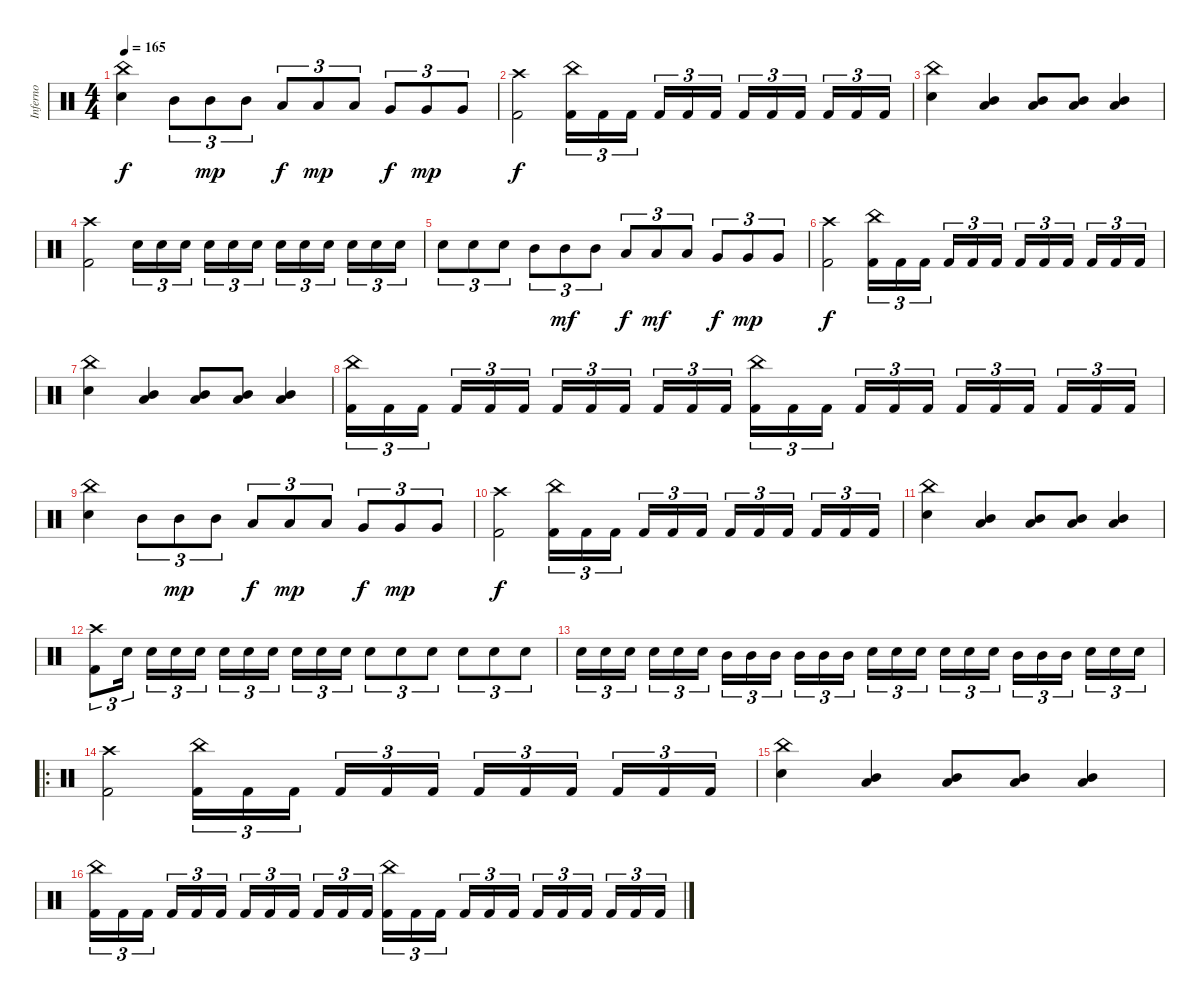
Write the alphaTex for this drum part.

\track ("Inferno" "Inferno") {instrument percussion}
\staff {score}
\articulation defaults
\ts (4 4)
\tempo 165
\clef neutral
\ks c
("China (hit)" "Electric Snare (hit)").4{dy f} "Mid Tom (hit)".8{tu (3 2)} "Mid Tom (hit)".8{tu (3 2) dy mp} "Mid Tom (hit)".8{tu (3 2)} "Low Tom (hit)".8{tu (3 2) dy f} "Low Tom (hit)".8{tu (3 2) dy mp} "Low Tom (hit)".8{tu (3 2)} "Very Low Tom (hit)".8{tu (3 2) dy f} "Very Low Tom (hit)".8{tu (3 2) dy mp} "Very Low Tom (hit)".8{tu (3 2)} |
("Crash high (hit)" "Kick (hit) 2").2{dy f} ("China (hit)" "Kick (hit) 2").16{tu (3 2)} "Kick (hit) 2".16{tu (3 2)} "Kick (hit) 2".16{tu (3 2) beam splitsecondary} "Kick (hit) 2".16{tu (3 2)} "Kick (hit) 2".16{tu (3 2)} "Kick (hit) 2".16{tu (3 2)} "Kick (hit) 2".16{tu (3 2)} "Kick (hit) 2".16{tu (3 2)} "Kick (hit) 2".16{tu (3 2) beam splitsecondary} "Kick (hit) 2".16{tu (3 2)} "Kick (hit) 2".16{tu (3 2)} "Kick (hit) 2".16{tu (3 2)} |
("China (hit)" "Electric Snare (hit)").4 ("Mid Tom (hit)" "Low Tom (hit)").4 ("Mid Tom (hit)" "Low Tom (hit)").8 ("Mid Tom (hit)" "Low Tom (hit)").8 ("Mid Tom (hit)" "Low Tom (hit)").4 |
("Crash high (hit)" "Kick (hit) 2").2 "Electric Snare (hit)".16{tu (3 2)} "Electric Snare (hit)".16{tu (3 2)} "Electric Snare (hit)".16{tu (3 2) beam splitsecondary} "Electric Snare (hit)".16{tu (3 2)} "Electric Snare (hit)".16{tu (3 2)} "Electric Snare (hit)".16{tu (3 2)} "Electric Snare (hit)".16{tu (3 2)} "Electric Snare (hit)".16{tu (3 2)} "Electric Snare (hit)".16{tu (3 2) beam splitsecondary} "Electric Snare (hit)".16{tu (3 2)} "Electric Snare (hit)".16{tu (3 2)} "Electric Snare (hit)".16{tu (3 2)} |
"Electric Snare (hit)".8{tu (3 2)} "Electric Snare (hit)".8{tu (3 2)} "Electric Snare (hit)".8{tu (3 2)} "Mid Tom (hit)".8{tu (3 2)} "Mid Tom (hit)".8{tu (3 2) dy mf} "Mid Tom (hit)".8{tu (3 2)} "Low Tom (hit)".8{tu (3 2) dy f} "Low Tom (hit)".8{tu (3 2) dy mf} "Low Tom (hit)".8{tu (3 2)} "Very Low Tom (hit)".8{tu (3 2) dy f} "Very Low Tom (hit)".8{tu (3 2) dy mp} "Very Low Tom (hit)".8{tu (3 2)} |
("Crash high (hit)" "Kick (hit) 2").2{dy f} ("China (hit)" "Kick (hit) 2").16{tu (3 2)} "Kick (hit) 2".16{tu (3 2)} "Kick (hit) 2".16{tu (3 2) beam splitsecondary} "Kick (hit) 2".16{tu (3 2)} "Kick (hit) 2".16{tu (3 2)} "Kick (hit) 2".16{tu (3 2)} "Kick (hit) 2".16{tu (3 2)} "Kick (hit) 2".16{tu (3 2)} "Kick (hit) 2".16{tu (3 2) beam splitsecondary} "Kick (hit) 2".16{tu (3 2)} "Kick (hit) 2".16{tu (3 2)} "Kick (hit) 2".16{tu (3 2)} |
("China (hit)" "Electric Snare (hit)").4 ("Mid Tom (hit)" "Low Tom (hit)").4 ("Mid Tom (hit)" "Low Tom (hit)").8 ("Mid Tom (hit)" "Low Tom (hit)").8 ("Mid Tom (hit)" "Low Tom (hit)").4 |
("China (hit)" "Kick (hit) 2").16{tu (3 2)} "Kick (hit) 2".16{tu (3 2)} "Kick (hit) 2".16{tu (3 2) beam splitsecondary} "Kick (hit) 2".16{tu (3 2)} "Kick (hit) 2".16{tu (3 2)} "Kick (hit) 2".16{tu (3 2)} "Kick (hit) 2".16{tu (3 2)} "Kick (hit) 2".16{tu (3 2)} "Kick (hit) 2".16{tu (3 2) beam splitsecondary} "Kick (hit) 2".16{tu (3 2)} "Kick (hit) 2".16{tu (3 2)} "Kick (hit) 2".16{tu (3 2)} ("China (hit)" "Kick (hit) 2").16{tu (3 2)} "Kick (hit) 2".16{tu (3 2)} "Kick (hit) 2".16{tu (3 2) beam splitsecondary} "Kick (hit) 2".16{tu (3 2)} "Kick (hit) 2".16{tu (3 2)} "Kick (hit) 2".16{tu (3 2)} "Kick (hit) 2".16{tu (3 2)} "Kick (hit) 2".16{tu (3 2)} "Kick (hit) 2".16{tu (3 2) beam splitsecondary} "Kick (hit) 2".16{tu (3 2)} "Kick (hit) 2".16{tu (3 2)} "Kick (hit) 2".16{tu (3 2)} |
("China (hit)" "Electric Snare (hit)").4 "Mid Tom (hit)".8{tu (3 2)} "Mid Tom (hit)".8{tu (3 2) dy mp} "Mid Tom (hit)".8{tu (3 2)} "Low Tom (hit)".8{tu (3 2) dy f} "Low Tom (hit)".8{tu (3 2) dy mp} "Low Tom (hit)".8{tu (3 2)} "Very Low Tom (hit)".8{tu (3 2) dy f} "Very Low Tom (hit)".8{tu (3 2) dy mp} "Very Low Tom (hit)".8{tu (3 2)} |
("Crash high (hit)" "Kick (hit) 2").2{dy f} ("China (hit)" "Kick (hit) 2").16{tu (3 2)} "Kick (hit) 2".16{tu (3 2)} "Kick (hit) 2".16{tu (3 2) beam splitsecondary} "Kick (hit) 2".16{tu (3 2)} "Kick (hit) 2".16{tu (3 2)} "Kick (hit) 2".16{tu (3 2)} "Kick (hit) 2".16{tu (3 2)} "Kick (hit) 2".16{tu (3 2)} "Kick (hit) 2".16{tu (3 2) beam splitsecondary} "Kick (hit) 2".16{tu (3 2)} "Kick (hit) 2".16{tu (3 2)} "Kick (hit) 2".16{tu (3 2)} |
("China (hit)" "Electric Snare (hit)").4 ("Mid Tom (hit)" "Low Tom (hit)").4 ("Mid Tom (hit)" "Low Tom (hit)").8 ("Mid Tom (hit)" "Low Tom (hit)").8 ("Mid Tom (hit)" "Low Tom (hit)").4 |
("Crash high (hit)" "Kick (hit) 2").8{tu (3 2)} "Electric Snare (hit)".16{tu (3 2) beam splitsecondary} "Electric Snare (hit)".16{tu (3 2)} "Electric Snare (hit)".16{tu (3 2)} "Electric Snare (hit)".16{tu (3 2)} "Electric Snare (hit)".16{tu (3 2)} "Electric Snare (hit)".16{tu (3 2)} "Electric Snare (hit)".16{tu (3 2) beam splitsecondary} "Electric Snare (hit)".16{tu (3 2)} "Electric Snare (hit)".16{tu (3 2)} "Electric Snare (hit)".16{tu (3 2)} "Electric Snare (hit)".8{tu (3 2)} "Electric Snare (hit)".8{tu (3 2)} "Electric Snare (hit)".8{tu (3 2)} "Electric Snare (hit)".8{tu (3 2)} "Electric Snare (hit)".8{tu (3 2)} "Electric Snare (hit)".8{tu (3 2)} |
"Electric Snare (hit)".16{tu (3 2)} "Electric Snare (hit)".16{tu (3 2)} "Electric Snare (hit)".16{tu (3 2) beam splitsecondary} "Electric Snare (hit)".16{tu (3 2)} "Electric Snare (hit)".16{tu (3 2)} "Electric Snare (hit)".16{tu (3 2)} "Mid Tom (hit)".16{tu (3 2)} "Mid Tom (hit)".16{tu (3 2)} "Mid Tom (hit)".16{tu (3 2) beam splitsecondary} "Mid Tom (hit)".16{tu (3 2)} "Mid Tom (hit)".16{tu (3 2)} "Mid Tom (hit)".16{tu (3 2)} "Electric Snare (hit)".16{tu (3 2)} "Electric Snare (hit)".16{tu (3 2)} "Electric Snare (hit)".16{tu (3 2) beam splitsecondary} "Electric Snare (hit)".16{tu (3 2)} "Electric Snare (hit)".16{tu (3 2)} "Electric Snare (hit)".16{tu (3 2)} "Mid Tom (hit)".16{tu (3 2)} "Mid Tom (hit)".16{tu (3 2)} "Mid Tom (hit)".16{tu (3 2) beam splitsecondary} "Electric Snare (hit)".16{tu (3 2)} "Electric Snare (hit)".16{tu (3 2)} "Electric Snare (hit)".16{tu (3 2)} |
\ro
("Crash high (hit)" "Kick (hit) 2").2 ("China (hit)" "Kick (hit) 2").16{tu (3 2)} "Kick (hit) 2".16{tu (3 2)} "Kick (hit) 2".16{tu (3 2) beam splitsecondary} "Kick (hit) 2".16{tu (3 2)} "Kick (hit) 2".16{tu (3 2)} "Kick (hit) 2".16{tu (3 2)} "Kick (hit) 2".16{tu (3 2)} "Kick (hit) 2".16{tu (3 2)} "Kick (hit) 2".16{tu (3 2) beam splitsecondary} "Kick (hit) 2".16{tu (3 2)} "Kick (hit) 2".16{tu (3 2)} "Kick (hit) 2".16{tu (3 2)} |
("China (hit)" "Electric Snare (hit)").4 ("Mid Tom (hit)" "Low Tom (hit)").4 ("Mid Tom (hit)" "Low Tom (hit)").8 ("Mid Tom (hit)" "Low Tom (hit)").8 ("Mid Tom (hit)" "Low Tom (hit)").4 |
("China (hit)" "Kick (hit) 2").16{tu (3 2)} "Kick (hit) 2".16{tu (3 2)} "Kick (hit) 2".16{tu (3 2) beam splitsecondary} "Kick (hit) 2".16{tu (3 2)} "Kick (hit) 2".16{tu (3 2)} "Kick (hit) 2".16{tu (3 2)} "Kick (hit) 2".16{tu (3 2)} "Kick (hit) 2".16{tu (3 2)} "Kick (hit) 2".16{tu (3 2) beam splitsecondary} "Kick (hit) 2".16{tu (3 2)} "Kick (hit) 2".16{tu (3 2)} "Kick (hit) 2".16{tu (3 2)} ("China (hit)" "Kick (hit) 2").16{tu (3 2)} "Kick (hit) 2".16{tu (3 2)} "Kick (hit) 2".16{tu (3 2) beam splitsecondary} "Kick (hit) 2".16{tu (3 2)} "Kick (hit) 2".16{tu (3 2)} "Kick (hit) 2".16{tu (3 2)} "Kick (hit) 2".16{tu (3 2)} "Kick (hit) 2".16{tu (3 2)} "Kick (hit) 2".16{tu (3 2) beam splitsecondary} "Kick (hit) 2".16{tu (3 2)} "Kick (hit) 2".16{tu (3 2)} "Kick (hit) 2".16{tu (3 2)}
